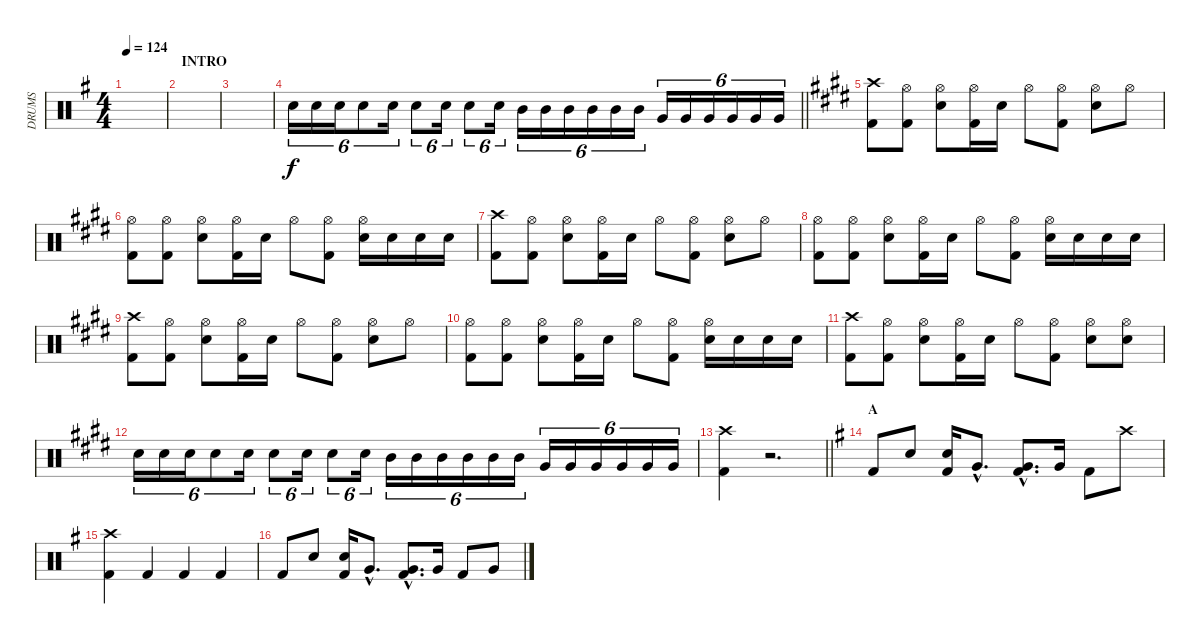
\track ("DRUMS" "DRUMS") {instrument percussion}
\staff {score}
\articulation defaults
\ts (4 4)
\tempo 124
\clef neutral
\ks g
|
\section ("" "INTRO")
|
|
\barLineRight lightlight "Snare (hit) 2".16{tu (6 4)} "Snare (hit) 2".16{tu (6 4)} "Snare (hit) 2".16{tu (6 4)} "Snare (hit) 2".8{tu (6 4)} "Snare (hit) 2".16{tu (6 4)} "Snare (hit) 2".8{tu (6 4)} "Snare (hit) 2".16{tu (6 4)} "Snare (hit) 2".8{tu (6 4)} "Snare (hit) 2".16{tu (6 4)} "Mid Tom (hit)".16{tu (6 4)} "Mid Tom (hit)".16{tu (6 4)} "Mid Tom (hit)".16{tu (6 4)} "Mid Tom (hit)".16{tu (6 4)} "Mid Tom (hit)".16{tu (6 4)} "Mid Tom (hit)".16{tu (6 4)} "Very Low Tom (hit)".16{tu (6 4)} "Very Low Tom (hit)".16{tu (6 4)} "Very Low Tom (hit)".16{tu (6 4)} "Very Low Tom (hit)".16{tu (6 4)} "Very Low Tom (hit)".16{tu (6 4)} "Very Low Tom (hit)".16{tu (6 4)}
|
\ks e
("Crash high (hit)" "Kick (hit) 2").8 ("Hi-Hat (open)" "Kick (hit) 2").8 ("Hi-Hat (open)" "Snare (hit) 2").8 ("Hi-Hat (open)" "Kick (hit) 2").16 "Snare (hit) 2".16 "Hi-Hat (open)".8 ("Hi-Hat (open)" "Kick (hit) 2").8 ("Hi-Hat (open)" "Snare (hit) 2").8 "Hi-Hat (open)".8 |
("Hi-Hat (open)" "Kick (hit) 2").8 ("Hi-Hat (open)" "Kick (hit) 2").8 ("Hi-Hat (open)" "Snare (hit) 2").8 ("Hi-Hat (open)" "Kick (hit) 2").16 "Snare (hit) 2".16 "Hi-Hat (open)".8 ("Hi-Hat (open)" "Kick (hit) 2").8 ("Hi-Hat (open)" "Snare (hit) 2").16 "Snare (hit) 2".16 "Snare (hit) 2".16 "Snare (hit) 2".16 |
("Crash high (hit)" "Kick (hit) 2").8 ("Hi-Hat (open)" "Kick (hit) 2").8 ("Hi-Hat (open)" "Snare (hit) 2").8 ("Hi-Hat (open)" "Kick (hit) 2").16 "Snare (hit) 2".16 "Hi-Hat (open)".8 ("Hi-Hat (open)" "Kick (hit) 2").8 ("Hi-Hat (open)" "Snare (hit) 2").8 "Hi-Hat (open)".8 |
("Hi-Hat (open)" "Kick (hit) 2").8 ("Hi-Hat (open)" "Kick (hit) 2").8 ("Hi-Hat (open)" "Snare (hit) 2").8 ("Hi-Hat (open)" "Kick (hit) 2").16 "Snare (hit) 2".16 "Hi-Hat (open)".8 ("Hi-Hat (open)" "Kick (hit) 2").8 ("Hi-Hat (open)" "Snare (hit) 2").16 "Snare (hit) 2".16 "Snare (hit) 2".16 "Snare (hit) 2".16 |
("Crash high (hit)" "Kick (hit) 2").8 ("Hi-Hat (open)" "Kick (hit) 2").8 ("Hi-Hat (open)" "Snare (hit) 2").8 ("Hi-Hat (open)" "Kick (hit) 2").16 "Snare (hit) 2".16 "Hi-Hat (open)".8 ("Hi-Hat (open)" "Kick (hit) 2").8 ("Hi-Hat (open)" "Snare (hit) 2").8 "Hi-Hat (open)".8 |
("Hi-Hat (open)" "Kick (hit) 2").8 ("Hi-Hat (open)" "Kick (hit) 2").8 ("Hi-Hat (open)" "Snare (hit) 2").8 ("Hi-Hat (open)" "Kick (hit) 2").16 "Snare (hit) 2".16 "Hi-Hat (open)".8 ("Hi-Hat (open)" "Kick (hit) 2").8 ("Hi-Hat (open)" "Snare (hit) 2").16 "Snare (hit) 2".16 "Snare (hit) 2".16 "Snare (hit) 2".16 |
("Crash high (hit)" "Kick (hit) 2").8 ("Hi-Hat (open)" "Kick (hit) 2").8 ("Hi-Hat (open)" "Snare (hit) 2").8 ("Hi-Hat (open)" "Kick (hit) 2").16 "Snare (hit) 2".16 "Hi-Hat (open)".8 ("Hi-Hat (open)" "Kick (hit) 2").8 ("Hi-Hat (open)" "Snare (hit) 2").8 ("Hi-Hat (open)" "Snare (hit) 2").8 |
"Snare (hit) 2".16{tu (6 4)} "Snare (hit) 2".16{tu (6 4)} "Snare (hit) 2".16{tu (6 4)} "Snare (hit) 2".8{tu (6 4)} "Snare (hit) 2".16{tu (6 4)} "Snare (hit) 2".8{tu (6 4)} "Snare (hit) 2".16{tu (6 4)} "Snare (hit) 2".8{tu (6 4)} "Snare (hit) 2".16{tu (6 4)} "Mid Tom (hit)".16{tu (6 4)} "Mid Tom (hit)".16{tu (6 4)} "Mid Tom (hit)".16{tu (6 4)} "Mid Tom (hit)".16{tu (6 4)} "Mid Tom (hit)".16{tu (6 4)} "Mid Tom (hit)".16{tu (6 4)} "Very Low Tom (hit)".16{tu (6 4)} "Very Low Tom (hit)".16{tu (6 4)} "Very Low Tom (hit)".16{tu (6 4)} "Very Low Tom (hit)".16{tu (6 4)} "Very Low Tom (hit)".16{tu (6 4)} "Very Low Tom (hit)".16{tu (6 4)} |
\barLineRight lightlight
("Crash high (hit)" "Kick (hit) 2").4 r.2{d} |
\section ("" "A")
\ks g "Kick (hit) 2".8 "Snare (hit) 2".8
("Snare (hit) 2" "Kick (hit) 2").16 "Very Low Tom (hit)"{hac}.8{d} ("Kick (hit) 2"{hac} "Very Low Tom (hit)"{hac}).8{d} "Very Low Tom (hit)".16 "Kick (hit) 2".8 "Crash high (hit)".8 |
("Crash high (hit)" "Kick (hit) 2").4 "Kick (hit) 2".4 "Kick (hit) 2".4 "Kick (hit) 2".4 |
"Kick (hit) 2".8 "Snare (hit) 2".8 ("Snare (hit) 2" "Kick (hit) 2").16 "Very Low Tom (hit)"{hac}.8{d} ("Kick (hit) 2"{hac} "Very Low Tom (hit)"{hac}).8{d} "Very Low Tom (hit)".16 "Kick (hit) 2".8 "Very Low Tom (hit)".8
